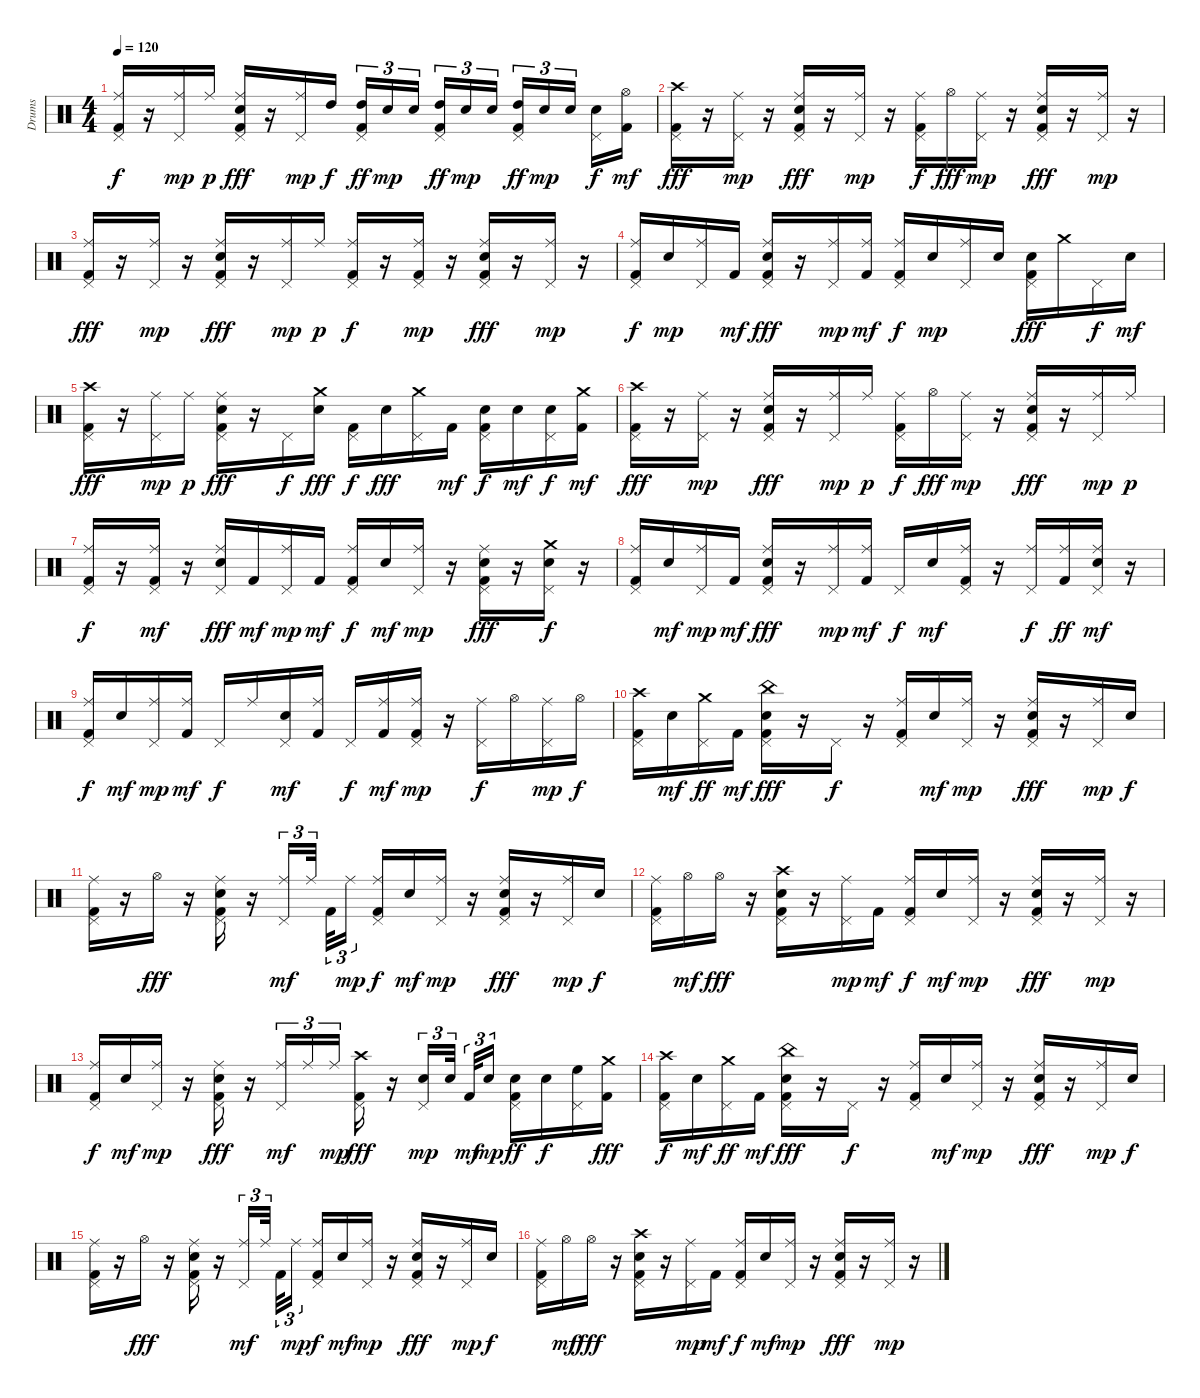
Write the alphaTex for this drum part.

\track ("Drums" "Drums") {instrument percussion}
\staff {score}
\articulation defaults
\ts (4 4)
\tempo 120
\clef neutral
\ks c
("Ride (middle)" "Kick (hit) 2" "Pedal Hi-Hat (hit)").16{dy f} r.16 ("Ride (middle)" "Pedal Hi-Hat (hit)").16{dy mp} "Ride (middle)".16{dy p} ("Ride (middle)" "Snare (hit) 2" "Kick (hit) 2" "Pedal Hi-Hat (hit)").16{dy fff} r.16 ("Ride (middle)" "Pedal Hi-Hat (hit)").16{dy mp} "High Tom (hit)".16{dy f} ("High Tom (hit)" "Kick (hit) 2" "Pedal Hi-Hat (hit)").16{tu (3 2) dy ff} "Snare (hit) 2".16{tu (3 2) dy mp} "Snare (hit) 2".16{tu (3 2) beam splitsecondary} ("High Tom (hit)" "Kick (hit) 2" "Pedal Hi-Hat (hit)").16{tu (3 2) dy ff} "Snare (hit) 2".16{tu (3 2) dy mp} "Snare (hit) 2".16{tu (3 2)} ("High Tom (hit)" "Kick (hit) 2" "Pedal Hi-Hat (hit)").16{tu (3 2) dy ff} "Snare (hit) 2".16{tu (3 2) dy mp} "Snare (hit) 2".16{tu (3 2) beam splitsecondary} ("Snare (hit) 2" "Pedal Hi-Hat (hit)").16{dy f} ("Hi-Hat (open)" "Kick (hit) 2").16{dy mf} |
("Crash high (hit)" "Kick (hit) 2" "Pedal Hi-Hat (hit)").16{dy fff} r.16 ("Ride (middle)" "Pedal Hi-Hat (hit)").16{dy mp} r.16 ("Ride (middle)" "Snare (hit) 2" "Kick (hit) 2" "Pedal Hi-Hat (hit)").16{dy fff} r.16 ("Ride (middle)" "Pedal Hi-Hat (hit)").16{dy mp} r.16 ("Ride (middle)" "Kick (hit) 2" "Pedal Hi-Hat (hit)").16{dy f} "Hi-Hat (open)".16{dy fff} ("Ride (middle)" "Pedal Hi-Hat (hit)").16{dy mp} r.16 ("Ride (middle)" "Snare (hit) 2" "Kick (hit) 2" "Pedal Hi-Hat (hit)").16{dy fff} r.16 ("Ride (middle)" "Pedal Hi-Hat (hit)").16{dy mp} r.16 |
("Ride (middle)" "Kick (hit) 2" "Pedal Hi-Hat (hit)").16{dy fff} r.16 ("Ride (middle)" "Pedal Hi-Hat (hit)").16{dy mp} r.16 ("Ride (middle)" "Kick (hit) 2" "Pedal Hi-Hat (hit)" "Snare (hit) 2").16{dy fff} r.16 ("Ride (middle)" "Pedal Hi-Hat (hit)").16{dy mp} "Ride (middle)".16{dy p} ("Ride (middle)" "Kick (hit) 2" "Pedal Hi-Hat (hit)").16{dy f} r.16 ("Ride (middle)" "Kick (hit) 2" "Pedal Hi-Hat (hit)").16{dy mp} r.16 ("Ride (middle)" "Snare (hit) 2" "Kick (hit) 2" "Pedal Hi-Hat (hit)").16{dy fff} r.16 ("Ride (middle)" "Pedal Hi-Hat (hit)").16{dy mp} r.16 |
("Ride (middle)" "Kick (hit) 2" "Pedal Hi-Hat (hit)").16{dy f} "Snare (hit) 2".16{dy mp} ("Ride (middle)" "Pedal Hi-Hat (hit)").16 "Kick (hit) 2".16{dy mf} ("Ride (middle)" "Snare (hit) 2" "Kick (hit) 2" "Pedal Hi-Hat (hit)").16{dy fff} r.16 ("Ride (middle)" "Pedal Hi-Hat (hit)").16{dy mp} ("Ride (middle)" "Kick (hit) 2").16{dy mf} ("Ride (middle)" "Kick (hit) 2" "Pedal Hi-Hat (hit)").16{dy f} "Snare (hit) 2".16{dy mp} ("Ride (middle)" "Pedal Hi-Hat (hit)").16 "Snare (hit) 2".16 ("Snare (hit) 2" "Kick (hit) 2" "Pedal Hi-Hat (hit)").16{dy fff} "Crash medium (hit)".16 "Pedal Hi-Hat (hit)".16{dy f} "Snare (hit) 2".16{dy mf} |
("Crash high (hit)" "Kick (hit) 2" "Pedal Hi-Hat (hit)").16{dy fff} r.16 ("Ride (middle)" "Pedal Hi-Hat (hit)").16{dy mp} "Ride (middle)".16{dy p} ("Ride (middle)" "Snare (hit) 2" "Kick (hit) 2" "Pedal Hi-Hat (hit)").16{dy fff} r.16 "Pedal Hi-Hat (hit)".16{dy f} ("Snare (hit) 2" "Crash medium (hit)").16{dy fff} ("Kick (hit) 2" "Pedal Hi-Hat (hit)").16{dy f} "Snare (hit) 2".16{dy fff} ("Crash medium (hit)" "Pedal Hi-Hat (hit)").16 "Kick (hit) 2".16{dy mf} ("Snare (hit) 2" "Kick (hit) 2" "Pedal Hi-Hat (hit)").16{dy f} "Snare (hit) 2".16{dy mf} ("Snare (hit) 2" "Pedal Hi-Hat (hit)").16{dy f} ("Crash medium (hit)" "Kick (hit) 2").16{dy mf} |
("Crash high (hit)" "Kick (hit) 2" "Pedal Hi-Hat (hit)").16{dy fff} r.16 ("Ride (middle)" "Pedal Hi-Hat (hit)").16{dy mp} r.16 ("Ride (middle)" "Snare (hit) 2" "Kick (hit) 2" "Pedal Hi-Hat (hit)").16{dy fff} r.16 ("Ride (middle)" "Pedal Hi-Hat (hit)").16{dy mp} "Ride (middle)".16{dy p} ("Ride (middle)" "Kick (hit) 2" "Pedal Hi-Hat (hit)").16{dy f} "Hi-Hat (open)".16{dy fff} ("Ride (middle)" "Pedal Hi-Hat (hit)").16{dy mp} r.16 ("Ride (middle)" "Snare (hit) 2" "Kick (hit) 2" "Pedal Hi-Hat (hit)").16{dy fff} r.16 ("Ride (middle)" "Pedal Hi-Hat (hit)").16{dy mp} "Ride (middle)".16{dy p} |
("Ride (middle)" "Kick (hit) 2" "Pedal Hi-Hat (hit)").16{dy f} r.16 ("Ride (middle)" "Kick (hit) 2" "Pedal Hi-Hat (hit)").16{dy mf} r.16 ("Ride (middle)" "Snare (hit) 2" "Pedal Hi-Hat (hit)").16{dy fff} "Kick (hit) 2".16{dy mf} ("Ride (middle)" "Pedal Hi-Hat (hit)").16{dy mp} "Kick (hit) 2".16{dy mf} ("Ride (middle)" "Kick (hit) 2" "Pedal Hi-Hat (hit)").16{dy f} "Snare (hit) 2".16{dy mf} ("Ride (middle)" "Pedal Hi-Hat (hit)").16{dy mp} r.16 ("Ride (middle)" "Snare (hit) 2" "Kick (hit) 2" "Pedal Hi-Hat (hit)").16{dy fff} r.16 ("Snare (hit) 2" "Pedal Hi-Hat (hit)" "Crash medium (hit)").16{dy f} r.16 |
("Ride (middle)" "Kick (hit) 2" "Pedal Hi-Hat (hit)").16 "Snare (hit) 2".16{dy mf} ("Ride (middle)" "Pedal Hi-Hat (hit)").16{dy mp} "Kick (hit) 2".16{dy mf} ("Ride (middle)" "Snare (hit) 2" "Kick (hit) 2" "Pedal Hi-Hat (hit)").16{dy fff} r.16 ("Ride (middle)" "Pedal Hi-Hat (hit)").16{dy mp} ("Ride (middle)" "Kick (hit) 2").16{dy mf} "Pedal Hi-Hat (hit)".16{dy f} "Snare (hit) 2".16{dy mf} ("Ride (middle)" "Kick (hit) 2" "Pedal Hi-Hat (hit)").16 r.16 ("Ride (middle)" "Pedal Hi-Hat (hit)").16{dy f} ("Ride (middle)" "Kick (hit) 2").16{dy ff} ("Ride (middle)" "Snare (hit) 2" "Pedal Hi-Hat (hit)").16{dy mf} r.16 |
("Ride (middle)" "Pedal Hi-Hat (hit)" "Kick (hit) 2").16{dy f} "Snare (hit) 2".16{dy mf} ("Ride (middle)" "Pedal Hi-Hat (hit)").16{dy mp} ("Ride (middle)" "Kick (hit) 2").16{dy mf} "Pedal Hi-Hat (hit)".16{dy f} "Ride (middle)".16 ("Snare (hit) 2" "Pedal Hi-Hat (hit)").16{dy mf} ("Ride (middle)" "Kick (hit) 2").16 "Pedal Hi-Hat (hit)".16{dy f} ("Ride (middle)" "Kick (hit) 2").16{dy mf} ("Ride (middle)" "Pedal Hi-Hat (hit)" "Kick (hit) 2").16{dy mp} r.16 ("Ride (middle)" "Pedal Hi-Hat (hit)").16{dy f} "Hi-Hat (open)".16 ("Ride (middle)" "Pedal Hi-Hat (hit)").16{dy mp} "Hi-Hat (open)".16{dy f} |
("Crash high (hit)" "Kick (hit) 2" "Pedal Hi-Hat (hit)").16 "Snare (hit) 2".16{dy mf} ("Crash medium (hit)" "Pedal Hi-Hat (hit)").16{dy ff} "Kick (hit) 2".16{dy mf} ("China (hit)" "Snare (hit) 2" "Kick (hit) 2" "Pedal Hi-Hat (hit)").16{dy fff} r.16 "Pedal Hi-Hat (hit)".16{dy f} r.16 ("Ride (middle)" "Kick (hit) 2" "Pedal Hi-Hat (hit)").16 "Snare (hit) 2".16{dy mf} ("Ride (middle)" "Pedal Hi-Hat (hit)").16{dy mp} r.16 ("Snare (hit) 2" "Ride (middle)" "Kick (hit) 2" "Pedal Hi-Hat (hit)").16{dy fff} r.16 ("Ride (middle)" "Pedal Hi-Hat (hit)").16{dy mp} "Snare (hit) 2".16{dy f} |
("Ride (middle)" "Kick (hit) 2" "Pedal Hi-Hat (hit)").16 r.16 "Hi-Hat (open)".16{dy fff} r.16 ("Ride (middle)" "Snare (hit) 2" "Kick (hit) 2" "Pedal Hi-Hat (hit)").16 r.16 ("Pedal Hi-Hat (hit)" "Ride (middle)").16{tu (3 2) dy mf} "Ride (middle)".32{tu (3 2) beam splitsecondary} "Kick (hit) 2".32{tu (3 2)} "Ride (middle)".16{tu (3 2) dy mp} ("Ride (middle)" "Kick (hit) 2" "Pedal Hi-Hat (hit)").16{dy f} "Snare (hit) 2".16{dy mf} ("Ride (middle)" "Pedal Hi-Hat (hit)").16{dy mp} r.16 ("Snare (hit) 2" "Ride (middle)" "Kick (hit) 2" "Pedal Hi-Hat (hit)").16{dy fff} r.16 ("Ride (middle)" "Pedal Hi-Hat (hit)").16{dy mp} "Snare (hit) 2".16{dy f} |
("Ride (middle)" "Kick (hit) 2" "Pedal Hi-Hat (hit)").16 "Hi-Hat (open)".16{dy mf} "Hi-Hat (open)".16{dy fff} r.16 ("Snare (hit) 2" "Crash high (hit)" "Kick (hit) 2" "Pedal Hi-Hat (hit)").16 r.16 ("Ride (middle)" "Pedal Hi-Hat (hit)").16{dy mp} "Kick (hit) 2".16{dy mf} ("Ride (middle)" "Kick (hit) 2" "Pedal Hi-Hat (hit)").16{dy f} "Snare (hit) 2".16{dy mf} ("Ride (middle)" "Pedal Hi-Hat (hit)").16{dy mp} r.16 ("Ride (middle)" "Snare (hit) 2" "Kick (hit) 2" "Pedal Hi-Hat (hit)").16{dy fff} r.16 ("Ride (middle)" "Pedal Hi-Hat (hit)").16{dy mp} r.16 |
("Ride (middle)" "Kick (hit) 2" "Pedal Hi-Hat (hit)").16{dy f} "Snare (hit) 2".16{dy mf} ("Ride (middle)" "Pedal Hi-Hat (hit)").16{dy mp} r.16 ("Snare (hit) 2" "Ride (middle)" "Kick (hit) 2" "Pedal Hi-Hat (hit)").16{dy fff} r.16 ("Pedal Hi-Hat (hit)" "Ride (middle)").16{tu (3 2) dy mf} "Ride (middle)".16{tu (3 2)} "Ride (middle)".16{tu (3 2) dy mp} ("Crash high (hit)" "Kick (hit) 2" "Pedal Hi-Hat (hit)").16{dy fff} r.16 ("Pedal Hi-Hat (hit)" "Snare (hit) 2").16{tu (3 2) dy mp} "Snare (hit) 2".32{tu (3 2) beam splitsecondary} "Kick (hit) 2".32{tu (3 2) dy mf} "Snare (hit) 2".16{tu (3 2) dy mp} ("Snare (hit) 2" "Kick (hit) 2" "Pedal Hi-Hat (hit)").16{dy ff} "Snare (hit) 2".16{dy f} ("High Floor Tom (hit)" "Pedal Hi-Hat (hit)").16 ("Crash medium (hit)" "Kick (hit) 2").16{dy fff} |
("Crash high (hit)" "Kick (hit) 2" "Pedal Hi-Hat (hit)").16{dy f} "Snare (hit) 2".16{dy mf} ("Crash medium (hit)" "Pedal Hi-Hat (hit)").16{dy ff} "Kick (hit) 2".16{dy mf} ("China (hit)" "Snare (hit) 2" "Kick (hit) 2" "Pedal Hi-Hat (hit)").16{dy fff} r.16 "Pedal Hi-Hat (hit)".16{dy f} r.16 ("Ride (middle)" "Kick (hit) 2" "Pedal Hi-Hat (hit)").16 "Snare (hit) 2".16{dy mf} ("Ride (middle)" "Pedal Hi-Hat (hit)").16{dy mp} r.16 ("Snare (hit) 2" "Ride (middle)" "Kick (hit) 2" "Pedal Hi-Hat (hit)").16{dy fff} r.16 ("Ride (middle)" "Pedal Hi-Hat (hit)").16{dy mp} "Snare (hit) 2".16{dy f} |
("Ride (middle)" "Kick (hit) 2" "Pedal Hi-Hat (hit)").16 r.16 "Hi-Hat (open)".16{dy fff} r.16 ("Ride (middle)" "Snare (hit) 2" "Kick (hit) 2" "Pedal Hi-Hat (hit)").16 r.16 ("Pedal Hi-Hat (hit)" "Ride (middle)").16{tu (3 2) dy mf} "Ride (middle)".32{tu (3 2) beam splitsecondary} "Kick (hit) 2".32{tu (3 2)} "Ride (middle)".16{tu (3 2) dy mp} ("Ride (middle)" "Kick (hit) 2" "Pedal Hi-Hat (hit)").16{dy f} "Snare (hit) 2".16{dy mf} ("Ride (middle)" "Pedal Hi-Hat (hit)").16{dy mp} r.16 ("Snare (hit) 2" "Ride (middle)" "Kick (hit) 2" "Pedal Hi-Hat (hit)").16{dy fff} r.16 ("Ride (middle)" "Pedal Hi-Hat (hit)").16{dy mp} "Snare (hit) 2".16{dy f} |
("Ride (middle)" "Kick (hit) 2" "Pedal Hi-Hat (hit)").16 "Hi-Hat (open)".16{dy mf} "Hi-Hat (open)".16{dy fff} r.16 ("Snare (hit) 2" "Crash high (hit)" "Kick (hit) 2" "Pedal Hi-Hat (hit)").16 r.16 ("Ride (middle)" "Pedal Hi-Hat (hit)").16{dy mp} "Kick (hit) 2".16{dy mf} ("Ride (middle)" "Kick (hit) 2" "Pedal Hi-Hat (hit)").16{dy f} "Snare (hit) 2".16{dy mf} ("Ride (middle)" "Pedal Hi-Hat (hit)").16{dy mp} r.16 ("Ride (middle)" "Snare (hit) 2" "Kick (hit) 2" "Pedal Hi-Hat (hit)").16{dy fff} r.16 ("Ride (middle)" "Pedal Hi-Hat (hit)").16{dy mp} r.16
